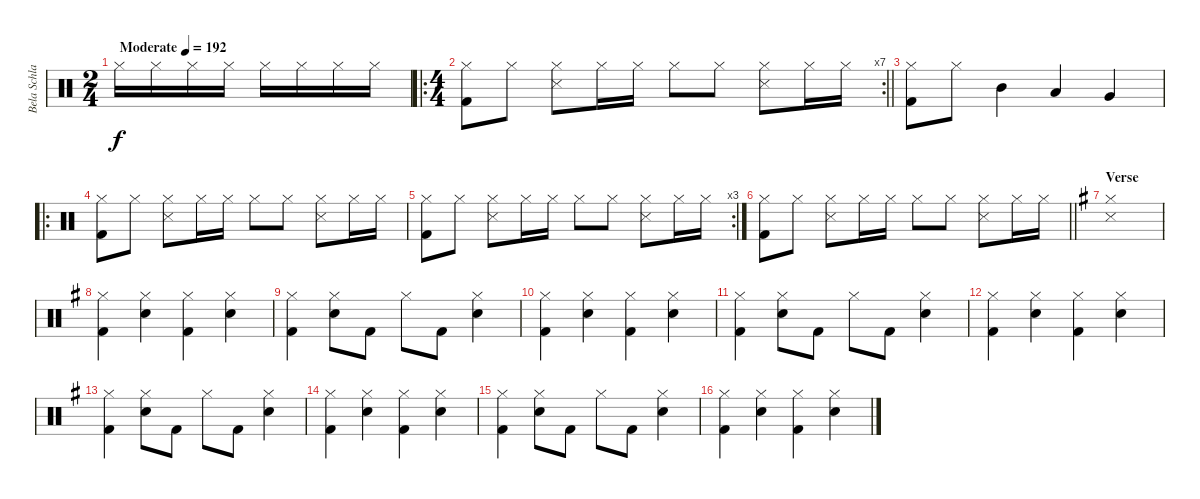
\track ("Bela Schlagzeug" "Bela Schla") {instrument percussion}
\staff {score}
\articulation defaults
\ts (2 4)
\tempo (192 "Moderate")
\clef neutral
\ks c "Hi-Hat (closed)".16{dy f} "Hi-Hat (closed)".16 "Hi-Hat (closed)".16 "Hi-Hat (closed)".16 "Hi-Hat (closed)".16 "Hi-Hat (closed)".16 "Hi-Hat (closed)".16 "Hi-Hat (closed)".16
|
\ro
\rc 7
\ts (4 4)
\barLineRight lightlight
("Hi-Hat (closed)" "Kick (hit) 2").8 "Hi-Hat (closed)".8 ("Hi-Hat (closed)" "Snare (side stick) 3").8 "Hi-Hat (closed)".16 "Hi-Hat (closed)".16 "Hi-Hat (closed)".8 "Hi-Hat (closed)".8 ("Hi-Hat (closed)" "Snare (side stick) 3").8 "Hi-Hat (closed)".16 "Hi-Hat (closed)".16 |
("Hi-Hat (closed)" "Kick (hit) 2").8 "Hi-Hat (closed)".8 "Mid Tom (hit)".4 "Low Tom (hit)".4 "Very Low Tom (hit)".4 |
\ro
("Hi-Hat (closed)" "Kick (hit) 2").8 "Hi-Hat (closed)".8 ("Hi-Hat (closed)" "Snare (side stick) 3").8 "Hi-Hat (closed)".16 "Hi-Hat (closed)".16 "Hi-Hat (closed)".8 "Hi-Hat (closed)".8 ("Hi-Hat (closed)" "Snare (side stick) 3").8 "Hi-Hat (closed)".16 "Hi-Hat (closed)".16 |
\rc 3
("Hi-Hat (closed)" "Kick (hit) 2").8 "Hi-Hat (closed)".8 ("Hi-Hat (closed)" "Snare (side stick) 3").8 "Hi-Hat (closed)".16 "Hi-Hat (closed)".16 "Hi-Hat (closed)".8 "Hi-Hat (closed)".8 ("Hi-Hat (closed)" "Snare (side stick) 3").8 "Hi-Hat (closed)".16 "Hi-Hat (closed)".16 |
\barLineRight lightlight
("Hi-Hat (closed)" "Kick (hit) 2").8 "Hi-Hat (closed)".8 ("Hi-Hat (closed)" "Snare (side stick) 3").8 "Hi-Hat (closed)".16 "Hi-Hat (closed)".16 "Hi-Hat (closed)".8 "Hi-Hat (closed)".8 ("Hi-Hat (closed)" "Snare (side stick) 3").8 "Hi-Hat (closed)".16 "Hi-Hat (closed)".16 |
\section ("" "Verse")
\ks g
("Hi-Hat (closed)" "Snare (side stick) 3").1 |
("Hi-Hat (closed)" "Kick (hit) 2").4 ("Hi-Hat (closed)" "Electric Snare (hit)").4 ("Hi-Hat (closed)" "Kick (hit) 2").4 ("Hi-Hat (closed)" "Electric Snare (hit)").4 |
("Hi-Hat (closed)" "Kick (hit) 2").4 ("Hi-Hat (closed)" "Electric Snare (hit)").8 "Kick (hit) 2".8 "Hi-Hat (closed)".8 "Kick (hit) 2".8 ("Hi-Hat (closed)" "Electric Snare (hit)").4 |
("Hi-Hat (closed)" "Kick (hit) 2").4 ("Hi-Hat (closed)" "Electric Snare (hit)").4 ("Hi-Hat (closed)" "Kick (hit) 2").4 ("Hi-Hat (closed)" "Electric Snare (hit)").4 |
("Hi-Hat (closed)" "Kick (hit) 2").4 ("Hi-Hat (closed)" "Electric Snare (hit)").8 "Kick (hit) 2".8 "Hi-Hat (closed)".8 "Kick (hit) 2".8 ("Hi-Hat (closed)" "Electric Snare (hit)").4 |
("Hi-Hat (closed)" "Kick (hit) 2").4 ("Hi-Hat (closed)" "Electric Snare (hit)").4 ("Hi-Hat (closed)" "Kick (hit) 2").4 ("Hi-Hat (closed)" "Electric Snare (hit)").4 |
("Hi-Hat (closed)" "Kick (hit) 2").4 ("Hi-Hat (closed)" "Electric Snare (hit)").8 "Kick (hit) 2".8 "Hi-Hat (closed)".8 "Kick (hit) 2".8 ("Hi-Hat (closed)" "Electric Snare (hit)").4 |
("Hi-Hat (closed)" "Kick (hit) 2").4 ("Hi-Hat (closed)" "Electric Snare (hit)").4 ("Hi-Hat (closed)" "Kick (hit) 2").4 ("Hi-Hat (closed)" "Electric Snare (hit)").4 |
("Hi-Hat (closed)" "Kick (hit) 2").4 ("Hi-Hat (closed)" "Electric Snare (hit)").8 "Kick (hit) 2".8 "Hi-Hat (closed)".8 "Kick (hit) 2".8 ("Hi-Hat (closed)" "Electric Snare (hit)").4 |
("Hi-Hat (closed)" "Kick (hit) 2").4 ("Hi-Hat (closed)" "Electric Snare (hit)").4 ("Hi-Hat (closed)" "Kick (hit) 2").4 ("Hi-Hat (closed)" "Electric Snare (hit)").4
